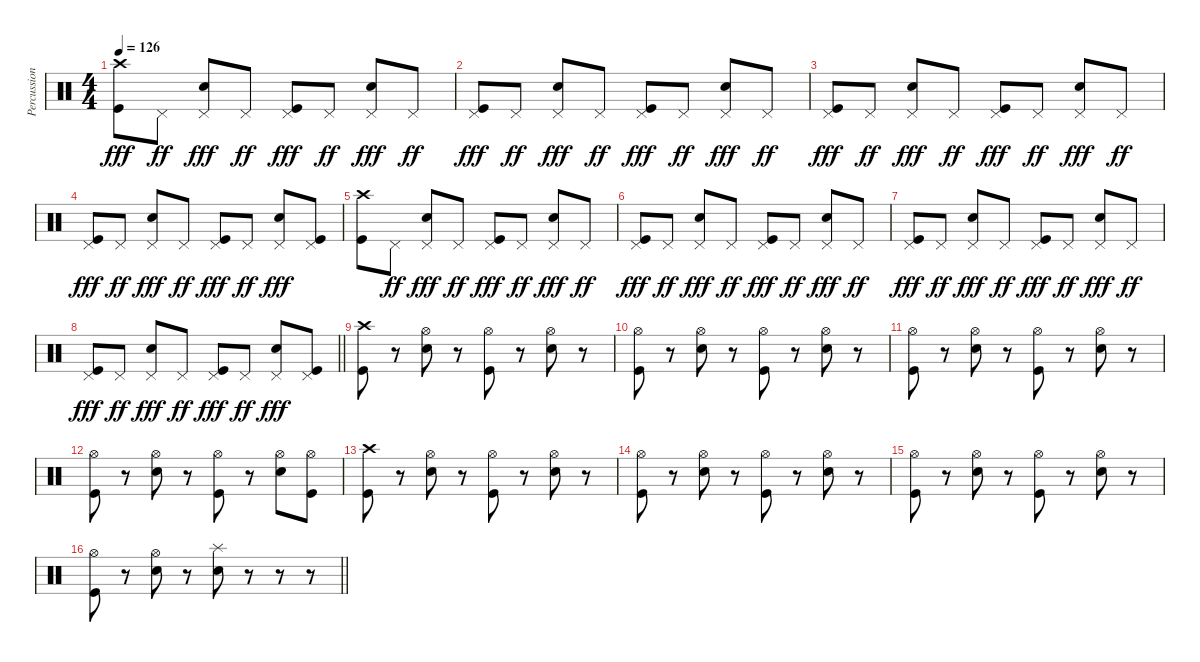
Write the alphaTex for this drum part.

\track ("Percussions" "Percussion") {instrument percussion}
\staff {score}
\articulation defaults
\ts (4 4)
\tempo 126
\clef neutral
\ks c
("Crash high (hit)" "Kick (hit)").8{dy fff} "Pedal Hi-Hat (hit)".8{dy ff} ("Pedal Hi-Hat (hit)" "Electric Snare (hit)").8{dy fff} "Pedal Hi-Hat (hit)".8{dy ff} ("Pedal Hi-Hat (hit)" "Kick (hit)").8{dy fff} "Pedal Hi-Hat (hit)".8{dy ff} ("Pedal Hi-Hat (hit)" "Electric Snare (hit)").8{dy fff} "Pedal Hi-Hat (hit)".8{dy ff} |
("Pedal Hi-Hat (hit)" "Kick (hit)").8{dy fff} "Pedal Hi-Hat (hit)".8{dy ff} ("Pedal Hi-Hat (hit)" "Electric Snare (hit)").8{dy fff} "Pedal Hi-Hat (hit)".8{dy ff} ("Pedal Hi-Hat (hit)" "Kick (hit)").8{dy fff} "Pedal Hi-Hat (hit)".8{dy ff} ("Pedal Hi-Hat (hit)" "Electric Snare (hit)").8{dy fff} "Pedal Hi-Hat (hit)".8{dy ff} |
("Pedal Hi-Hat (hit)" "Kick (hit)").8{dy fff} "Pedal Hi-Hat (hit)".8{dy ff} ("Pedal Hi-Hat (hit)" "Electric Snare (hit)").8{dy fff} "Pedal Hi-Hat (hit)".8{dy ff} ("Pedal Hi-Hat (hit)" "Kick (hit)").8{dy fff} "Pedal Hi-Hat (hit)".8{dy ff} ("Pedal Hi-Hat (hit)" "Electric Snare (hit)").8{dy fff} "Pedal Hi-Hat (hit)".8{dy ff} |
("Pedal Hi-Hat (hit)" "Kick (hit)").8{dy fff} "Pedal Hi-Hat (hit)".8{dy ff} ("Pedal Hi-Hat (hit)" "Electric Snare (hit)").8{dy fff} "Pedal Hi-Hat (hit)".8{dy ff} ("Pedal Hi-Hat (hit)" "Kick (hit)").8{dy fff} "Pedal Hi-Hat (hit)".8{dy ff} ("Pedal Hi-Hat (hit)" "Electric Snare (hit)").8{dy fff} ("Pedal Hi-Hat (hit)" "Kick (hit)").8 |
("Crash high (hit)" "Kick (hit)").8 "Pedal Hi-Hat (hit)".8{dy ff} ("Pedal Hi-Hat (hit)" "Electric Snare (hit)").8{dy fff} "Pedal Hi-Hat (hit)".8{dy ff} ("Pedal Hi-Hat (hit)" "Kick (hit)").8{dy fff} "Pedal Hi-Hat (hit)".8{dy ff} ("Pedal Hi-Hat (hit)" "Electric Snare (hit)").8{dy fff} "Pedal Hi-Hat (hit)".8{dy ff} |
("Pedal Hi-Hat (hit)" "Kick (hit)").8{dy fff} "Pedal Hi-Hat (hit)".8{dy ff} ("Pedal Hi-Hat (hit)" "Electric Snare (hit)").8{dy fff} "Pedal Hi-Hat (hit)".8{dy ff} ("Pedal Hi-Hat (hit)" "Kick (hit)").8{dy fff} "Pedal Hi-Hat (hit)".8{dy ff} ("Pedal Hi-Hat (hit)" "Electric Snare (hit)").8{dy fff} "Pedal Hi-Hat (hit)".8{dy ff} |
("Pedal Hi-Hat (hit)" "Kick (hit)").8{dy fff} "Pedal Hi-Hat (hit)".8{dy ff} ("Pedal Hi-Hat (hit)" "Electric Snare (hit)").8{dy fff} "Pedal Hi-Hat (hit)".8{dy ff} ("Pedal Hi-Hat (hit)" "Kick (hit)").8{dy fff} "Pedal Hi-Hat (hit)".8{dy ff} ("Pedal Hi-Hat (hit)" "Electric Snare (hit)").8{dy fff} "Pedal Hi-Hat (hit)".8{dy ff} |
\barLineRight lightlight
("Pedal Hi-Hat (hit)" "Kick (hit)").8{dy fff} "Pedal Hi-Hat (hit)".8{dy ff} ("Pedal Hi-Hat (hit)" "Electric Snare (hit)").8{dy fff} "Pedal Hi-Hat (hit)".8{dy ff} ("Pedal Hi-Hat (hit)" "Kick (hit)").8{dy fff} "Pedal Hi-Hat (hit)".8{dy ff} ("Pedal Hi-Hat (hit)" "Electric Snare (hit)").8{dy fff} ("Pedal Hi-Hat (hit)" "Kick (hit)").8 |
("Crash high (hit)" "Kick (hit)").8 r.8 ("Hi-Hat (open)" "Electric Snare (hit)").8 r.8 ("Hi-Hat (open)" "Kick (hit)").8 r.8 ("Hi-Hat (open)" "Electric Snare (hit)").8 r.8 |
("Hi-Hat (open)" "Kick (hit)").8 r.8 ("Hi-Hat (open)" "Electric Snare (hit)").8 r.8 ("Hi-Hat (open)" "Kick (hit)").8 r.8 ("Hi-Hat (open)" "Electric Snare (hit)").8 r.8 |
("Hi-Hat (open)" "Kick (hit)").8 r.8 ("Hi-Hat (open)" "Electric Snare (hit)").8 r.8 ("Hi-Hat (open)" "Kick (hit)").8 r.8 ("Hi-Hat (open)" "Electric Snare (hit)").8 r.8 |
("Hi-Hat (open)" "Kick (hit)").8 r.8 ("Hi-Hat (open)" "Electric Snare (hit)").8 r.8 ("Hi-Hat (open)" "Kick (hit)").8 r.8 ("Hi-Hat (open)" "Electric Snare (hit)").8 ("Hi-Hat (open)" "Kick (hit)").8 |
("Crash high (hit)" "Kick (hit)").8 r.8 ("Hi-Hat (open)" "Electric Snare (hit)").8 r.8 ("Hi-Hat (open)" "Kick (hit)").8 r.8 ("Hi-Hat (open)" "Electric Snare (hit)").8 r.8 |
("Hi-Hat (open)" "Kick (hit)").8 r.8 ("Hi-Hat (open)" "Electric Snare (hit)").8 r.8 ("Hi-Hat (open)" "Kick (hit)").8 r.8 ("Hi-Hat (open)" "Electric Snare (hit)").8 r.8 |
("Hi-Hat (open)" "Kick (hit)").8 r.8 ("Hi-Hat (open)" "Electric Snare (hit)").8 r.8 ("Hi-Hat (open)" "Kick (hit)").8 r.8 ("Hi-Hat (open)" "Electric Snare (hit)").8 r.8 |
\barLineRight lightlight
("Hi-Hat (open)" "Kick (hit)").8 r.8 ("Hi-Hat (open)" "Electric Snare (hit)").8 r.8 ("Splash (hit)" "Electric Snare (hit)").8 r.8 r.8 r.8
